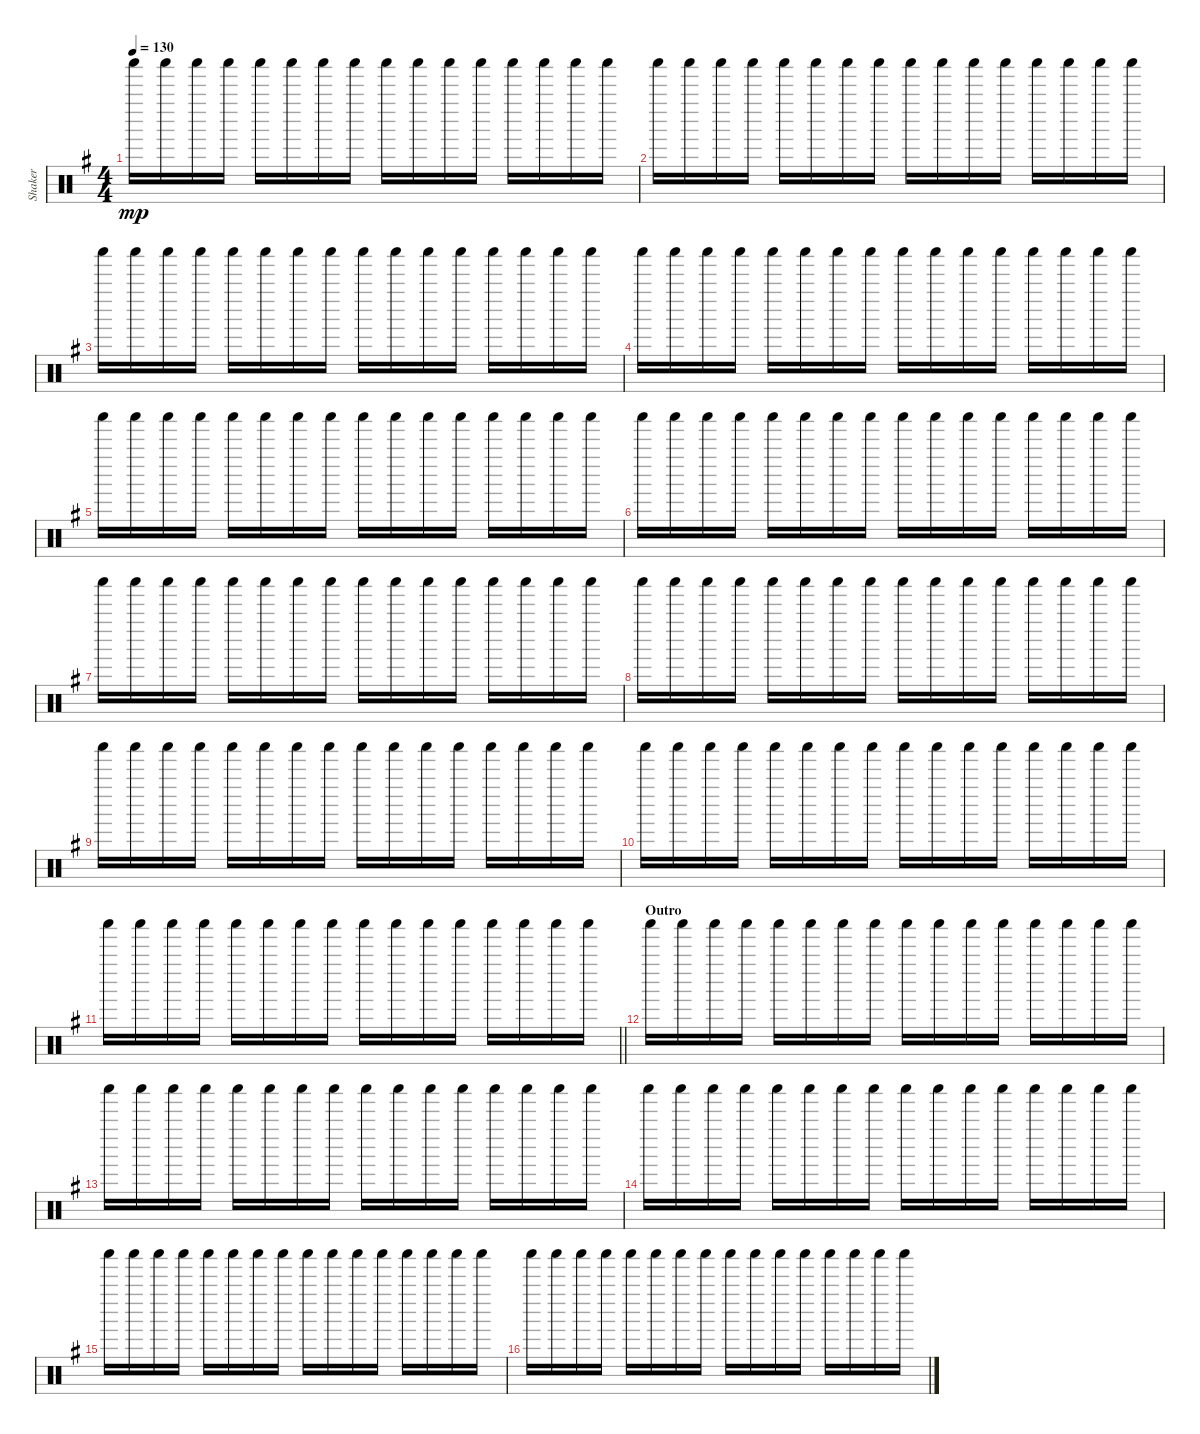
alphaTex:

\track ("Shaker" "Shaker") {instrument percussion}
\staff {score}
\articulation defaults
\ts (4 4)
\tempo 130
\clef neutral
\ks g "Shaker (hit)".16{dy mp} "Shaker (hit)".16 "Shaker (hit)".16 "Shaker (hit)".16 "Shaker (hit)".16 "Shaker (hit)".16 "Shaker (hit)".16 "Shaker (hit)".16 "Shaker (hit)".16 "Shaker (hit)".16 "Shaker (hit)".16 "Shaker (hit)".16 "Shaker (hit)".16 "Shaker (hit)".16 "Shaker (hit)".16 "Shaker (hit)".16
|
"Shaker (hit)".16 "Shaker (hit)".16 "Shaker (hit)".16 "Shaker (hit)".16 "Shaker (hit)".16 "Shaker (hit)".16 "Shaker (hit)".16 "Shaker (hit)".16 "Shaker (hit)".16 "Shaker (hit)".16 "Shaker (hit)".16 "Shaker (hit)".16 "Shaker (hit)".16 "Shaker (hit)".16 "Shaker (hit)".16 "Shaker (hit)".16 |
"Shaker (hit)".16 "Shaker (hit)".16 "Shaker (hit)".16 "Shaker (hit)".16 "Shaker (hit)".16 "Shaker (hit)".16 "Shaker (hit)".16 "Shaker (hit)".16 "Shaker (hit)".16 "Shaker (hit)".16 "Shaker (hit)".16 "Shaker (hit)".16 "Shaker (hit)".16 "Shaker (hit)".16 "Shaker (hit)".16 "Shaker (hit)".16 |
"Shaker (hit)".16 "Shaker (hit)".16 "Shaker (hit)".16 "Shaker (hit)".16 "Shaker (hit)".16 "Shaker (hit)".16 "Shaker (hit)".16 "Shaker (hit)".16 "Shaker (hit)".16 "Shaker (hit)".16 "Shaker (hit)".16 "Shaker (hit)".16 "Shaker (hit)".16 "Shaker (hit)".16 "Shaker (hit)".16 "Shaker (hit)".16 |
"Shaker (hit)".16 "Shaker (hit)".16 "Shaker (hit)".16 "Shaker (hit)".16 "Shaker (hit)".16 "Shaker (hit)".16 "Shaker (hit)".16 "Shaker (hit)".16 "Shaker (hit)".16 "Shaker (hit)".16 "Shaker (hit)".16 "Shaker (hit)".16 "Shaker (hit)".16 "Shaker (hit)".16 "Shaker (hit)".16 "Shaker (hit)".16 |
"Shaker (hit)".16 "Shaker (hit)".16 "Shaker (hit)".16 "Shaker (hit)".16 "Shaker (hit)".16 "Shaker (hit)".16 "Shaker (hit)".16 "Shaker (hit)".16 "Shaker (hit)".16 "Shaker (hit)".16 "Shaker (hit)".16 "Shaker (hit)".16 "Shaker (hit)".16 "Shaker (hit)".16 "Shaker (hit)".16 "Shaker (hit)".16 |
"Shaker (hit)".16 "Shaker (hit)".16 "Shaker (hit)".16 "Shaker (hit)".16 "Shaker (hit)".16 "Shaker (hit)".16 "Shaker (hit)".16 "Shaker (hit)".16 "Shaker (hit)".16 "Shaker (hit)".16 "Shaker (hit)".16 "Shaker (hit)".16 "Shaker (hit)".16 "Shaker (hit)".16 "Shaker (hit)".16 "Shaker (hit)".16 |
"Shaker (hit)".16 "Shaker (hit)".16 "Shaker (hit)".16 "Shaker (hit)".16 "Shaker (hit)".16 "Shaker (hit)".16 "Shaker (hit)".16 "Shaker (hit)".16 "Shaker (hit)".16 "Shaker (hit)".16 "Shaker (hit)".16 "Shaker (hit)".16 "Shaker (hit)".16 "Shaker (hit)".16 "Shaker (hit)".16 "Shaker (hit)".16 |
"Shaker (hit)".16 "Shaker (hit)".16 "Shaker (hit)".16 "Shaker (hit)".16 "Shaker (hit)".16 "Shaker (hit)".16 "Shaker (hit)".16 "Shaker (hit)".16 "Shaker (hit)".16 "Shaker (hit)".16 "Shaker (hit)".16 "Shaker (hit)".16 "Shaker (hit)".16 "Shaker (hit)".16 "Shaker (hit)".16 "Shaker (hit)".16 |
"Shaker (hit)".16 "Shaker (hit)".16 "Shaker (hit)".16 "Shaker (hit)".16 "Shaker (hit)".16 "Shaker (hit)".16 "Shaker (hit)".16 "Shaker (hit)".16 "Shaker (hit)".16 "Shaker (hit)".16 "Shaker (hit)".16 "Shaker (hit)".16 "Shaker (hit)".16 "Shaker (hit)".16 "Shaker (hit)".16 "Shaker (hit)".16 |
\barLineRight lightlight "Shaker (hit)".16 "Shaker (hit)".16 "Shaker (hit)".16 "Shaker (hit)".16 "Shaker (hit)".16 "Shaker (hit)".16 "Shaker (hit)".16 "Shaker (hit)".16 "Shaker (hit)".16 "Shaker (hit)".16 "Shaker (hit)".16 "Shaker (hit)".16 "Shaker (hit)".16 "Shaker (hit)".16 "Shaker (hit)".16 "Shaker (hit)".16
|
\section ("" "Outro")
"Shaker (hit)".16 "Shaker (hit)".16 "Shaker (hit)".16 "Shaker (hit)".16 "Shaker (hit)".16 "Shaker (hit)".16 "Shaker (hit)".16 "Shaker (hit)".16 "Shaker (hit)".16 "Shaker (hit)".16 "Shaker (hit)".16 "Shaker (hit)".16 "Shaker (hit)".16 "Shaker (hit)".16 "Shaker (hit)".16 "Shaker (hit)".16 |
"Shaker (hit)".16 "Shaker (hit)".16 "Shaker (hit)".16 "Shaker (hit)".16 "Shaker (hit)".16 "Shaker (hit)".16 "Shaker (hit)".16 "Shaker (hit)".16 "Shaker (hit)".16 "Shaker (hit)".16 "Shaker (hit)".16 "Shaker (hit)".16 "Shaker (hit)".16 "Shaker (hit)".16 "Shaker (hit)".16 "Shaker (hit)".16 |
"Shaker (hit)".16 "Shaker (hit)".16 "Shaker (hit)".16 "Shaker (hit)".16 "Shaker (hit)".16 "Shaker (hit)".16 "Shaker (hit)".16 "Shaker (hit)".16 "Shaker (hit)".16 "Shaker (hit)".16 "Shaker (hit)".16 "Shaker (hit)".16 "Shaker (hit)".16 "Shaker (hit)".16 "Shaker (hit)".16 "Shaker (hit)".16 |
"Shaker (hit)".16 "Shaker (hit)".16 "Shaker (hit)".16 "Shaker (hit)".16 "Shaker (hit)".16 "Shaker (hit)".16 "Shaker (hit)".16 "Shaker (hit)".16 "Shaker (hit)".16 "Shaker (hit)".16 "Shaker (hit)".16 "Shaker (hit)".16 "Shaker (hit)".16 "Shaker (hit)".16 "Shaker (hit)".16 "Shaker (hit)".16 |
"Shaker (hit)".16 "Shaker (hit)".16 "Shaker (hit)".16 "Shaker (hit)".16 "Shaker (hit)".16 "Shaker (hit)".16 "Shaker (hit)".16 "Shaker (hit)".16 "Shaker (hit)".16 "Shaker (hit)".16 "Shaker (hit)".16 "Shaker (hit)".16 "Shaker (hit)".16 "Shaker (hit)".16 "Shaker (hit)".16 "Shaker (hit)".16
